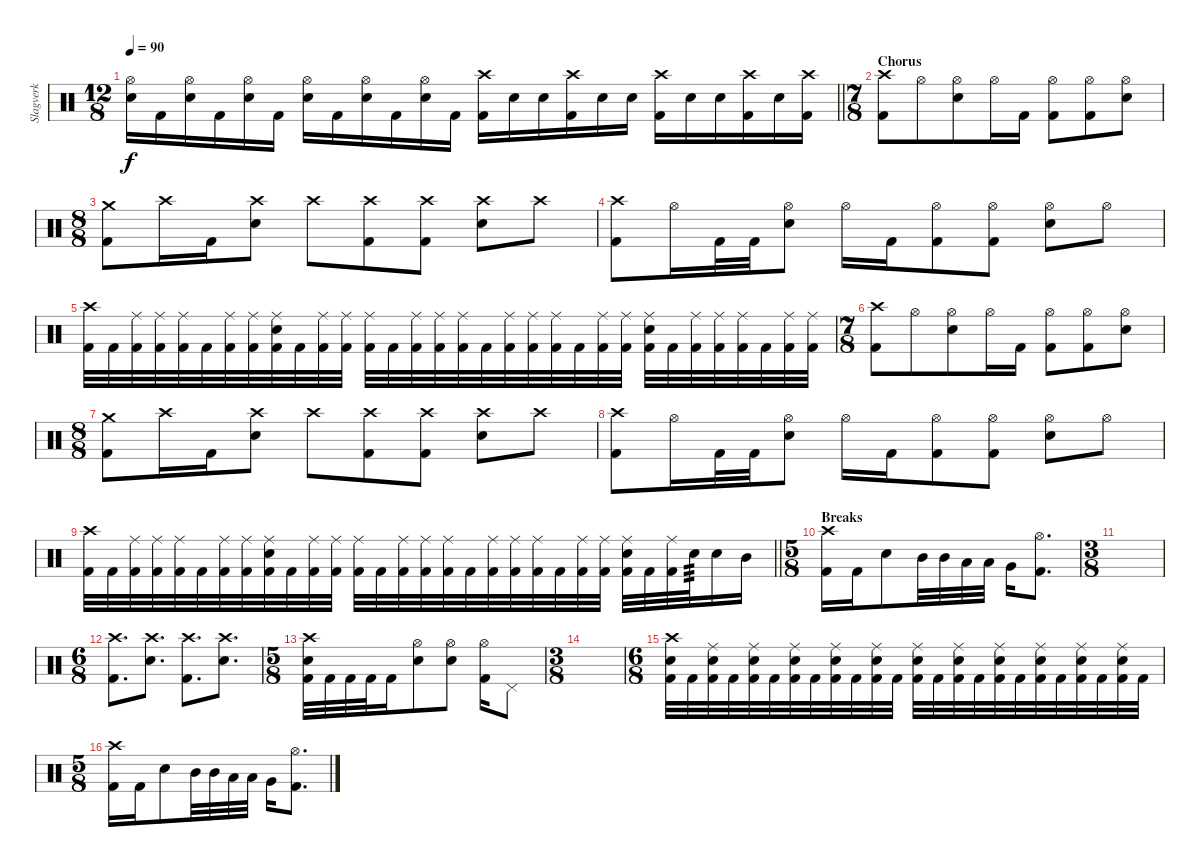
\track ("Slagverk" "Slagverk") {instrument percussion}
\staff {score}
\articulation defaults
\ts (12 8)
\tempo 90
\clef neutral
\barLineRight lightlight
\ks c
("Hi-Hat (open)" "Snare (hit) 2").16{dy f} "Kick (hit) 2".16 ("Snare (hit) 2" "Hi-Hat (open)").16 "Kick (hit) 2".16 ("Snare (hit) 2" "Hi-Hat (open)").16 "Kick (hit) 2".16 ("Snare (hit) 2" "Hi-Hat (open)").16 "Kick (hit) 2".16 ("Snare (hit) 2" "Hi-Hat (open)").16 "Kick (hit) 2".16 ("Snare (hit) 2" "Hi-Hat (open)").16 "Kick (hit) 2".16 ("Crash high (hit)" "Kick (hit) 2").16 "Snare (hit) 2".16 "Snare (hit) 2".16 ("Crash high (hit)" "Kick (hit) 2").16 "Snare (hit) 2".16 "Snare (hit) 2".16 ("Crash high (hit)" "Kick (hit) 2").16 "Snare (hit) 2".16 "Snare (hit) 2".16 ("Kick (hit) 2" "Crash high (hit)").16 "Snare (hit) 2".16 ("Crash high (hit)" "Kick (hit) 2").16 |
\ts (7 8)
\section ("" "Chorus")
("Crash high (hit)" "Kick (hit) 2").8 "Hi-Hat (open)".8 ("Hi-Hat (open)" "Snare (hit) 2").8 "Hi-Hat (open)".16 "Kick (hit) 2".16 ("Kick (hit) 2" "Hi-Hat (open)").8 ("Kick (hit) 2" "Hi-Hat (open)").8 ("Hi-Hat (open)" "Snare (hit) 2").8 |
\ts (8 8)
("Crash medium (hit)" "Kick (hit) 2").8 "Crash high (hit)".16 "Kick (hit) 2".16 ("Crash high (hit)" "Snare (hit) 2").8 "Crash high (hit)".8 ("Crash high (hit)" "Kick (hit) 2").8 ("Crash high (hit)" "Kick (hit) 2").8 ("Crash high (hit)" "Snare (hit) 2").8 "Crash high (hit)".8 |
("Crash high (hit)" "Kick (hit) 2").8 "Hi-Hat (open)".16 "Kick (hit) 2".32 "Kick (hit) 2".32 ("Hi-Hat (open)" "Snare (hit) 2").8 "Hi-Hat (open)".16 "Kick (hit) 2".16 ("Kick (hit) 2" "Hi-Hat (open)").8 ("Kick (hit) 2" "Hi-Hat (open)").8 ("Hi-Hat (open)" "Snare (hit) 2").8 "Hi-Hat (open)".8 |
("Kick (hit) 2" "Crash high (hit)").32 "Kick (hit) 2".32 ("Kick (hit) 2" "Ride (middle)").32 ("Kick (hit) 2" "Ride (middle)").32 ("Kick (hit) 2" "Ride (middle)").32 "Kick (hit) 2".32 ("Kick (hit) 2" "Ride (middle)").32 ("Kick (hit) 2" "Ride (middle)").32 ("Kick (hit) 2" "Ride (middle)" "Snare (hit) 2").32 "Kick (hit) 2".32 ("Kick (hit) 2" "Ride (middle)").32 ("Kick (hit) 2" "Ride (middle)").32 ("Kick (hit) 2" "Ride (middle)").32 "Kick (hit) 2".32 ("Kick (hit) 2" "Ride (middle)").32 ("Kick (hit) 2" "Ride (middle)").32 ("Kick (hit) 2" "Ride (middle)").32 "Kick (hit) 2".32 ("Kick (hit) 2" "Ride (middle)").32 ("Kick (hit) 2" "Ride (middle)").32 ("Kick (hit) 2" "Ride (middle)").32 "Kick (hit) 2".32 ("Kick (hit) 2" "Ride (middle)").32 ("Kick (hit) 2" "Ride (middle)").32 ("Kick (hit) 2" "Ride (middle)" "Snare (hit) 2").32 "Kick (hit) 2".32 ("Kick (hit) 2" "Ride (middle)").32 ("Kick (hit) 2" "Ride (middle)").32 ("Kick (hit) 2" "Ride (middle)").32 "Kick (hit) 2".32 ("Kick (hit) 2" "Ride (middle)").32 ("Kick (hit) 2" "Ride (middle)").32 |
\ts (7 8)
("Crash high (hit)" "Kick (hit) 2").8 "Hi-Hat (open)".8 ("Hi-Hat (open)" "Snare (hit) 2").8 "Hi-Hat (open)".16 "Kick (hit) 2".16 ("Kick (hit) 2" "Hi-Hat (open)").8 ("Kick (hit) 2" "Hi-Hat (open)").8 ("Hi-Hat (open)" "Snare (hit) 2").8 |
\ts (8 8)
("Crash medium (hit)" "Kick (hit) 2").8 "Crash high (hit)".16 "Kick (hit) 2".16 ("Crash high (hit)" "Snare (hit) 2").8 "Crash high (hit)".8 ("Crash high (hit)" "Kick (hit) 2").8 ("Crash high (hit)" "Kick (hit) 2").8 ("Crash high (hit)" "Snare (hit) 2").8 "Crash high (hit)".8 |
("Crash high (hit)" "Kick (hit) 2").8 "Hi-Hat (open)".16 "Kick (hit) 2".32 "Kick (hit) 2".32 ("Hi-Hat (open)" "Snare (hit) 2").8 "Hi-Hat (open)".16 "Kick (hit) 2".16 ("Kick (hit) 2" "Hi-Hat (open)").8 ("Kick (hit) 2" "Hi-Hat (open)").8 ("Hi-Hat (open)" "Snare (hit) 2").8 "Hi-Hat (open)".8 |
\barLineRight lightlight
("Kick (hit) 2" "Crash high (hit)").32 "Kick (hit) 2".32 ("Kick (hit) 2" "Ride (middle)").32 ("Kick (hit) 2" "Ride (middle)").32 ("Kick (hit) 2" "Ride (middle)").32 "Kick (hit) 2".32 ("Kick (hit) 2" "Ride (middle)").32 ("Kick (hit) 2" "Ride (middle)").32 ("Kick (hit) 2" "Ride (middle)" "Snare (hit) 2").32 "Kick (hit) 2".32 ("Kick (hit) 2" "Ride (middle)").32 ("Kick (hit) 2" "Ride (middle)").32 ("Kick (hit) 2" "Ride (middle)").32 "Kick (hit) 2".32 ("Kick (hit) 2" "Ride (middle)").32 ("Kick (hit) 2" "Ride (middle)").32 ("Kick (hit) 2" "Ride (middle)").32 "Kick (hit) 2".32 ("Kick (hit) 2" "Ride (middle)").32 ("Kick (hit) 2" "Ride (middle)").32 ("Kick (hit) 2" "Ride (middle)").32 "Kick (hit) 2".32 ("Kick (hit) 2" "Ride (middle)").32 ("Kick (hit) 2" "Ride (middle)").32 ("Kick (hit) 2" "Ride (middle)" "Snare (hit) 2").32 "Kick (hit) 2".32 ("Kick (hit) 2" "Ride (middle)").32 "Snare (hit) 2".32{tp 3} "Snare (hit) 2".16 "Mid Tom (hit)".16 |
\ts (5 8)
\section ("" "Breaks")
("Kick (hit) 2" "Crash high (hit)").16 "Kick (hit) 2".16 "Snare (hit) 2".8 "Mid Tom (hit)".32 "Mid Tom (hit)".32 "Low Tom (hit)".32 "Low Tom (hit)".32 "Very Low Tom (hit)".16 ("Kick (hit) 2" "Hi-Hat (open)").8{d} |
\ts (3 8)
|
\ts (6 8)
("Kick (hit) 2" "Crash high (hit)").8{d} ("Snare (hit) 2" "Crash high (hit)").8{d} ("Crash high (hit)" "Kick (hit) 2").8{d} ("Snare (hit) 2" "Crash high (hit)").8{d} |
\ts (5 8)
("Kick (hit) 2" "Crash high (hit)" "Snare (hit) 2").32 "Kick (hit) 2".32 "Kick (hit) 2".32 "Kick (hit) 2".32 "Kick (hit) 2".16 ("Snare (hit) 2" "Hi-Hat (open)").8 ("Snare (hit) 2" "Hi-Hat (open)").8 ("Kick (hit) 2" "Hi-Hat (open)").16 "Pedal Hi-Hat (hit)".8 |
\ts (3 8)
|
\ts (6 8)
("Kick (hit) 2" "Snare (hit) 2" "Crash high (hit)").32 "Kick (hit) 2".32 ("Snare (hit) 2" "Kick (hit) 2" "Ride (middle)").32 "Kick (hit) 2".32 ("Kick (hit) 2" "Snare (hit) 2" "Ride (middle)").32 "Kick (hit) 2".32 ("Kick (hit) 2" "Snare (hit) 2" "Ride (middle)").32 "Kick (hit) 2".32 ("Kick (hit) 2" "Snare (hit) 2" "Ride (middle)").32 "Kick (hit) 2".32 ("Kick (hit) 2" "Snare (hit) 2" "Ride (middle)").32 "Kick (hit) 2".32 ("Kick (hit) 2" "Snare (hit) 2" "Ride (middle)").32 "Kick (hit) 2".32 ("Kick (hit) 2" "Snare (hit) 2" "Ride (middle)").32 "Kick (hit) 2".32 ("Kick (hit) 2" "Snare (hit) 2" "Ride (middle)").32 "Kick (hit) 2".32 ("Kick (hit) 2" "Snare (hit) 2" "Ride (middle)").32 "Kick (hit) 2".32 ("Kick (hit) 2" "Snare (hit) 2" "Ride (middle)").32 "Kick (hit) 2".32 ("Kick (hit) 2" "Snare (hit) 2" "Ride (middle)").32 "Kick (hit) 2".32 |
\ts (5 8)
("Kick (hit) 2" "Crash high (hit)").16 "Kick (hit) 2".16 "Snare (hit) 2".8 "Mid Tom (hit)".32 "Mid Tom (hit)".32 "Low Tom (hit)".32 "Low Tom (hit)".32 "Very Low Tom (hit)".16 ("Kick (hit) 2" "Hi-Hat (open)").8{d}
